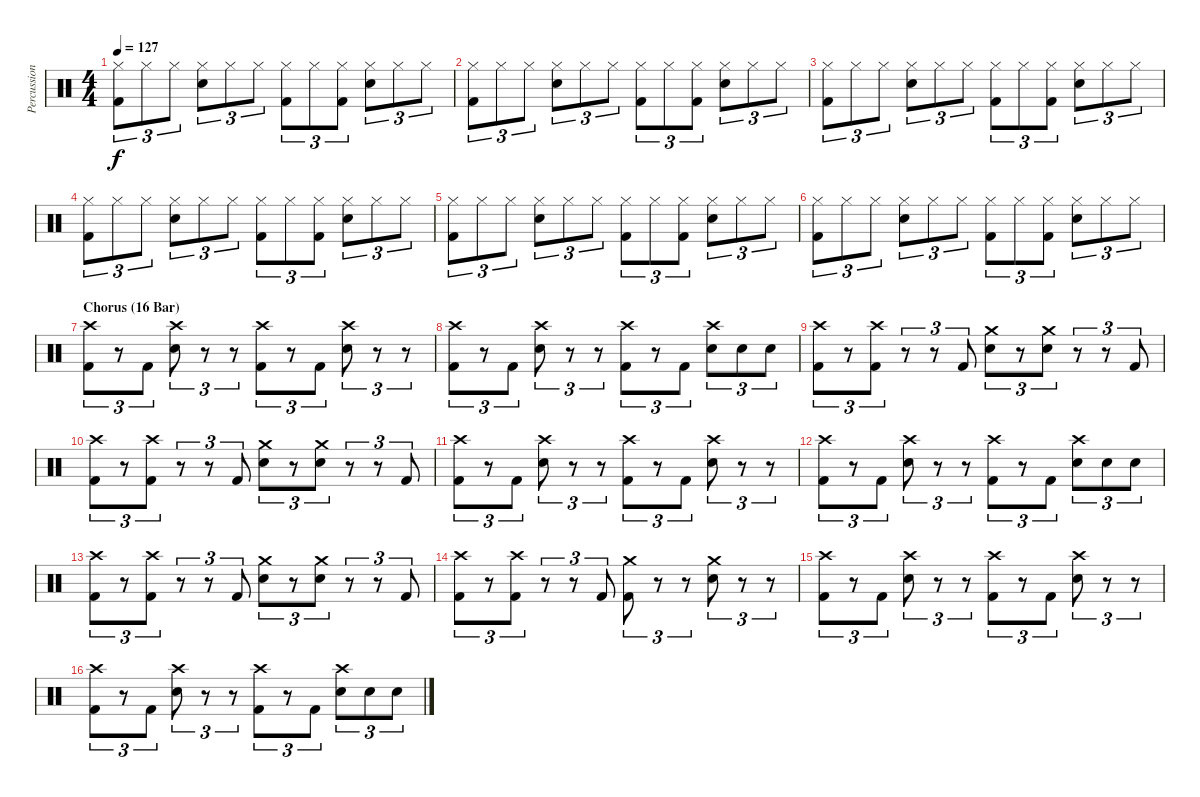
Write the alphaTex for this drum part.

\track ("Percussion" "Percussion") {instrument percussion}
\staff {score}
\articulation defaults
\ts (4 4)
\tempo 127
\clef neutral
\ks c
("Hi-Hat (closed)" "Kick (hit) 2").8{tu (3 2) dy f} "Hi-Hat (closed)".8{tu (3 2)} "Hi-Hat (closed)".8{tu (3 2)} ("Hi-Hat (closed)" "Electric Snare (hit)").8{tu (3 2)} "Hi-Hat (closed)".8{tu (3 2)} "Hi-Hat (closed)".8{tu (3 2)} ("Hi-Hat (closed)" "Kick (hit) 2").8{tu (3 2)} "Hi-Hat (closed)".8{tu (3 2)} ("Hi-Hat (closed)" "Kick (hit) 2").8{tu (3 2)} ("Hi-Hat (closed)" "Electric Snare (hit)").8{tu (3 2)} "Hi-Hat (closed)".8{tu (3 2)} "Hi-Hat (closed)".8{tu (3 2)} |
("Hi-Hat (closed)" "Kick (hit) 2").8{tu (3 2)} "Hi-Hat (closed)".8{tu (3 2)} "Hi-Hat (closed)".8{tu (3 2)} ("Hi-Hat (closed)" "Electric Snare (hit)").8{tu (3 2)} "Hi-Hat (closed)".8{tu (3 2)} "Hi-Hat (closed)".8{tu (3 2)} ("Hi-Hat (closed)" "Kick (hit) 2").8{tu (3 2)} "Hi-Hat (closed)".8{tu (3 2)} ("Hi-Hat (closed)" "Kick (hit) 2").8{tu (3 2)} ("Hi-Hat (closed)" "Electric Snare (hit)").8{tu (3 2)} "Hi-Hat (closed)".8{tu (3 2)} "Hi-Hat (closed)".8{tu (3 2)} |
("Hi-Hat (closed)" "Kick (hit) 2").8{tu (3 2)} "Hi-Hat (closed)".8{tu (3 2)} "Hi-Hat (closed)".8{tu (3 2)} ("Hi-Hat (closed)" "Electric Snare (hit)").8{tu (3 2)} "Hi-Hat (closed)".8{tu (3 2)} "Hi-Hat (closed)".8{tu (3 2)} ("Hi-Hat (closed)" "Kick (hit) 2").8{tu (3 2)} "Hi-Hat (closed)".8{tu (3 2)} ("Hi-Hat (closed)" "Kick (hit) 2").8{tu (3 2)} ("Hi-Hat (closed)" "Electric Snare (hit)").8{tu (3 2)} "Hi-Hat (closed)".8{tu (3 2)} "Hi-Hat (closed)".8{tu (3 2)} |
("Hi-Hat (closed)" "Kick (hit) 2").8{tu (3 2)} "Hi-Hat (closed)".8{tu (3 2)} "Hi-Hat (closed)".8{tu (3 2)} ("Hi-Hat (closed)" "Electric Snare (hit)").8{tu (3 2)} "Hi-Hat (closed)".8{tu (3 2)} "Hi-Hat (closed)".8{tu (3 2)} ("Hi-Hat (closed)" "Kick (hit) 2").8{tu (3 2)} "Hi-Hat (closed)".8{tu (3 2)} ("Hi-Hat (closed)" "Kick (hit) 2").8{tu (3 2)} ("Hi-Hat (closed)" "Electric Snare (hit)").8{tu (3 2)} "Hi-Hat (closed)".8{tu (3 2)} "Hi-Hat (closed)".8{tu (3 2)} |
("Hi-Hat (closed)" "Kick (hit) 2").8{tu (3 2)} "Hi-Hat (closed)".8{tu (3 2)} "Hi-Hat (closed)".8{tu (3 2)} ("Hi-Hat (closed)" "Electric Snare (hit)").8{tu (3 2)} "Hi-Hat (closed)".8{tu (3 2)} "Hi-Hat (closed)".8{tu (3 2)} ("Hi-Hat (closed)" "Kick (hit) 2").8{tu (3 2)} "Hi-Hat (closed)".8{tu (3 2)} ("Hi-Hat (closed)" "Kick (hit) 2").8{tu (3 2)} ("Hi-Hat (closed)" "Electric Snare (hit)").8{tu (3 2)} "Hi-Hat (closed)".8{tu (3 2)} "Hi-Hat (closed)".8{tu (3 2)} |
("Hi-Hat (closed)" "Kick (hit) 2").8{tu (3 2)} "Hi-Hat (closed)".8{tu (3 2)} "Hi-Hat (closed)".8{tu (3 2)} ("Hi-Hat (closed)" "Electric Snare (hit)").8{tu (3 2)} "Hi-Hat (closed)".8{tu (3 2)} "Hi-Hat (closed)".8{tu (3 2)} ("Hi-Hat (closed)" "Kick (hit) 2").8{tu (3 2)} "Hi-Hat (closed)".8{tu (3 2)} ("Hi-Hat (closed)" "Kick (hit) 2").8{tu (3 2)} ("Hi-Hat (closed)" "Electric Snare (hit)").8{tu (3 2)} "Hi-Hat (closed)".8{tu (3 2)} "Hi-Hat (closed)".8{tu (3 2)} |
\section ("" "Chorus (16 Bar)")
("Crash high (hit)" "Kick (hit) 2").8{tu (3 2) volume 13} r.8{tu (3 2)} "Kick (hit) 2".8{tu (3 2)} ("Crash high (hit)" "Electric Snare (hit)").8{tu (3 2)} r.8{tu (3 2)} r.8{tu (3 2)} ("Crash high (hit)" "Kick (hit) 2").8{tu (3 2)} r.8{tu (3 2)} "Kick (hit) 2".8{tu (3 2)} ("Crash high (hit)" "Electric Snare (hit)").8{tu (3 2)} r.8{tu (3 2)} r.8{tu (3 2)} |
("Crash high (hit)" "Kick (hit) 2").8{tu (3 2)} r.8{tu (3 2)} "Kick (hit) 2".8{tu (3 2)} ("Crash high (hit)" "Electric Snare (hit)").8{tu (3 2)} r.8{tu (3 2)} r.8{tu (3 2)} ("Crash high (hit)" "Kick (hit) 2").8{tu (3 2)} r.8{tu (3 2)} "Kick (hit) 2".8{tu (3 2)} ("Crash high (hit)" "Electric Snare (hit)").8{tu (3 2)} "Electric Snare (hit)".8{tu (3 2)} "Electric Snare (hit)".8{tu (3 2)} |
("Crash high (hit)" "Kick (hit) 2").8{tu (3 2)} r.8{tu (3 2)} ("Crash high (hit)" "Kick (hit) 2").8{tu (3 2)} r.8{tu (3 2)} r.8{tu (3 2)} "Kick (hit) 2".8{tu (3 2)} ("Crash medium (hit)" "Electric Snare (hit)").8{tu (3 2)} r.8{tu (3 2)} ("Crash medium (hit)" "Electric Snare (hit)").8{tu (3 2)} r.8{tu (3 2)} r.8{tu (3 2)} "Kick (hit) 2".8{tu (3 2)} |
("Crash high (hit)" "Kick (hit) 2").8{tu (3 2)} r.8{tu (3 2)} ("Crash high (hit)" "Kick (hit) 2").8{tu (3 2)} r.8{tu (3 2)} r.8{tu (3 2)} "Kick (hit) 2".8{tu (3 2)} ("Crash medium (hit)" "Electric Snare (hit)").8{tu (3 2)} r.8{tu (3 2)} ("Crash medium (hit)" "Electric Snare (hit)").8{tu (3 2)} r.8{tu (3 2)} r.8{tu (3 2)} "Kick (hit) 2".8{tu (3 2)} |
("Crash high (hit)" "Kick (hit) 2").8{tu (3 2)} r.8{tu (3 2)} "Kick (hit) 2".8{tu (3 2)} ("Crash high (hit)" "Electric Snare (hit)").8{tu (3 2)} r.8{tu (3 2)} r.8{tu (3 2)} ("Crash high (hit)" "Kick (hit) 2").8{tu (3 2)} r.8{tu (3 2)} "Kick (hit) 2".8{tu (3 2)} ("Crash high (hit)" "Electric Snare (hit)").8{tu (3 2)} r.8{tu (3 2)} r.8{tu (3 2)} |
("Crash high (hit)" "Kick (hit) 2").8{tu (3 2)} r.8{tu (3 2)} "Kick (hit) 2".8{tu (3 2)} ("Crash high (hit)" "Electric Snare (hit)").8{tu (3 2)} r.8{tu (3 2)} r.8{tu (3 2)} ("Crash high (hit)" "Kick (hit) 2").8{tu (3 2)} r.8{tu (3 2)} "Kick (hit) 2".8{tu (3 2)} ("Crash high (hit)" "Electric Snare (hit)").8{tu (3 2)} "Electric Snare (hit)".8{tu (3 2)} "Electric Snare (hit)".8{tu (3 2)} |
("Crash high (hit)" "Kick (hit) 2").8{tu (3 2)} r.8{tu (3 2)} ("Crash high (hit)" "Kick (hit) 2").8{tu (3 2)} r.8{tu (3 2)} r.8{tu (3 2)} "Kick (hit) 2".8{tu (3 2)} ("Crash medium (hit)" "Electric Snare (hit)").8{tu (3 2)} r.8{tu (3 2)} ("Crash medium (hit)" "Electric Snare (hit)").8{tu (3 2)} r.8{tu (3 2)} r.8{tu (3 2)} "Kick (hit) 2".8{tu (3 2)} |
("Crash high (hit)" "Kick (hit) 2").8{tu (3 2)} r.8{tu (3 2)} ("Crash high (hit)" "Kick (hit) 2").8{tu (3 2)} r.8{tu (3 2)} r.8{tu (3 2)} "Kick (hit) 2".8{tu (3 2)} ("Crash medium (hit)" "Kick (hit) 2").8{tu (3 2)} r.8{tu (3 2)} r.8{tu (3 2)} ("Crash medium (hit)" "Electric Snare (hit)").8{tu (3 2)} r.8{tu (3 2)} r.8{tu (3 2)} |
\section ("" "")
("Crash high (hit)" "Kick (hit) 2").8{tu (3 2)} r.8{tu (3 2)} "Kick (hit) 2".8{tu (3 2)} ("Crash high (hit)" "Electric Snare (hit)").8{tu (3 2)} r.8{tu (3 2)} r.8{tu (3 2)} ("Crash high (hit)" "Kick (hit) 2").8{tu (3 2)} r.8{tu (3 2)} "Kick (hit) 2".8{tu (3 2)} ("Crash high (hit)" "Electric Snare (hit)").8{tu (3 2)} r.8{tu (3 2)} r.8{tu (3 2)} |
("Crash high (hit)" "Kick (hit) 2").8{tu (3 2)} r.8{tu (3 2)} "Kick (hit) 2".8{tu (3 2)} ("Crash high (hit)" "Electric Snare (hit)").8{tu (3 2)} r.8{tu (3 2)} r.8{tu (3 2)} ("Crash high (hit)" "Kick (hit) 2").8{tu (3 2)} r.8{tu (3 2)} "Kick (hit) 2".8{tu (3 2)} ("Crash high (hit)" "Electric Snare (hit)").8{tu (3 2)} "Electric Snare (hit)".8{tu (3 2)} "Electric Snare (hit)".8{tu (3 2)}
